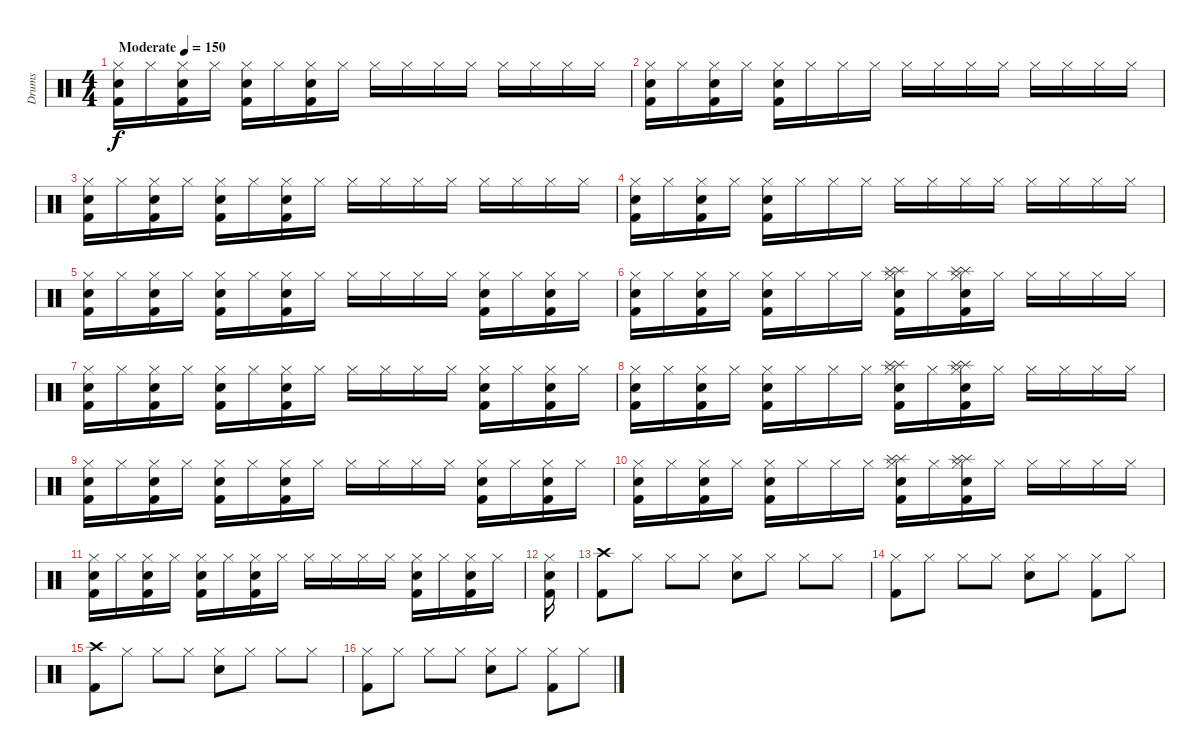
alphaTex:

\track ("Drums" "Drums") {instrument percussion}
\staff {score}
\articulation defaults
\ts (4 4)
\tempo (150 "Moderate")
\clef neutral
\ks c
("Hi-Hat (closed)" "Electric Snare (hit)" "Kick (hit) 2").16{dy f} "Hi-Hat (closed)".16 ("Hi-Hat (closed)" "Electric Snare (hit)" "Kick (hit) 2").16 "Hi-Hat (closed)".16 ("Hi-Hat (closed)" "Electric Snare (hit)" "Kick (hit) 2").16 "Hi-Hat (closed)".16 ("Hi-Hat (closed)" "Electric Snare (hit)" "Kick (hit) 2").16 "Hi-Hat (closed)".16 "Hi-Hat (closed)".16 "Hi-Hat (closed)".16 "Hi-Hat (closed)".16 "Hi-Hat (closed)".16 "Hi-Hat (closed)".16 "Hi-Hat (closed)".16 "Hi-Hat (closed)".16 "Hi-Hat (closed)".16 |
("Hi-Hat (closed)" "Electric Snare (hit)" "Kick (hit) 2").16 "Hi-Hat (closed)".16 ("Hi-Hat (closed)" "Electric Snare (hit)" "Kick (hit) 2").16 "Hi-Hat (closed)".16 ("Hi-Hat (closed)" "Electric Snare (hit)" "Kick (hit) 2").16 "Hi-Hat (closed)".16 "Hi-Hat (closed)".16 "Hi-Hat (closed)".16 "Hi-Hat (closed)".16 "Hi-Hat (closed)".16 "Hi-Hat (closed)".16 "Hi-Hat (closed)".16 "Hi-Hat (closed)".16 "Hi-Hat (closed)".16 "Hi-Hat (closed)".16 "Hi-Hat (closed)".16 |
("Hi-Hat (closed)" "Electric Snare (hit)" "Kick (hit) 2").16 "Hi-Hat (closed)".16 ("Hi-Hat (closed)" "Electric Snare (hit)" "Kick (hit) 2").16 "Hi-Hat (closed)".16 ("Hi-Hat (closed)" "Electric Snare (hit)" "Kick (hit) 2").16 "Hi-Hat (closed)".16 ("Hi-Hat (closed)" "Electric Snare (hit)" "Kick (hit) 2").16 "Hi-Hat (closed)".16 "Hi-Hat (closed)".16 "Hi-Hat (closed)".16 "Hi-Hat (closed)".16 "Hi-Hat (closed)".16 "Hi-Hat (closed)".16 "Hi-Hat (closed)".16 "Hi-Hat (closed)".16 "Hi-Hat (closed)".16 |
("Hi-Hat (closed)" "Electric Snare (hit)" "Kick (hit) 2").16 "Hi-Hat (closed)".16 ("Hi-Hat (closed)" "Electric Snare (hit)" "Kick (hit) 2").16 "Hi-Hat (closed)".16 ("Hi-Hat (closed)" "Electric Snare (hit)" "Kick (hit) 2").16 "Hi-Hat (closed)".16 "Hi-Hat (closed)".16 "Hi-Hat (closed)".16 "Hi-Hat (closed)".16 "Hi-Hat (closed)".16 "Hi-Hat (closed)".16 "Hi-Hat (closed)".16 "Hi-Hat (closed)".16 "Hi-Hat (closed)".16 "Hi-Hat (closed)".16 "Hi-Hat (closed)".16 |
("Hi-Hat (closed)" "Electric Snare (hit)" "Kick (hit) 2").16 "Hi-Hat (closed)".16 ("Hi-Hat (closed)" "Electric Snare (hit)" "Kick (hit) 2").16 "Hi-Hat (closed)".16 ("Hi-Hat (closed)" "Electric Snare (hit)" "Kick (hit) 2").16 "Hi-Hat (closed)".16 ("Hi-Hat (closed)" "Electric Snare (hit)" "Kick (hit) 2").16 "Hi-Hat (closed)".16 "Hi-Hat (closed)".16 "Hi-Hat (closed)".16 "Hi-Hat (closed)".16 "Hi-Hat (closed)".16 ("Hi-Hat (closed)" "Electric Snare (hit)" "Kick (hit) 2").16 "Hi-Hat (closed)".16 ("Hi-Hat (closed)" "Electric Snare (hit)" "Kick (hit) 2").16 "Hi-Hat (closed)".16 |
("Hi-Hat (closed)" "Electric Snare (hit)" "Kick (hit) 2").16 "Hi-Hat (closed)".16 ("Hi-Hat (closed)" "Electric Snare (hit)" "Kick (hit) 2").16 "Hi-Hat (closed)".16 ("Hi-Hat (closed)" "Electric Snare (hit)" "Kick (hit) 2").16 "Hi-Hat (closed)".16 "Hi-Hat (closed)".16 "Hi-Hat (closed)".16 ("Hi-Hat (closed)" "Splash (hit)" "Splash (hit)" "Electric Snare (hit)" "Kick (hit) 2").16 "Hi-Hat (closed)".16 ("Hi-Hat (closed)" "Splash (hit)" "Splash (hit)" "Electric Snare (hit)" "Kick (hit) 2").16 "Hi-Hat (closed)".16 "Hi-Hat (closed)".16 "Hi-Hat (closed)".16 "Hi-Hat (closed)".16 "Hi-Hat (closed)".16 |
("Hi-Hat (closed)" "Electric Snare (hit)" "Kick (hit) 2").16 "Hi-Hat (closed)".16 ("Hi-Hat (closed)" "Electric Snare (hit)" "Kick (hit) 2").16 "Hi-Hat (closed)".16 ("Hi-Hat (closed)" "Electric Snare (hit)" "Kick (hit) 2").16 "Hi-Hat (closed)".16 ("Hi-Hat (closed)" "Electric Snare (hit)" "Kick (hit) 2").16 "Hi-Hat (closed)".16 "Hi-Hat (closed)".16 "Hi-Hat (closed)".16 "Hi-Hat (closed)".16 "Hi-Hat (closed)".16 ("Hi-Hat (closed)" "Electric Snare (hit)" "Kick (hit) 2").16 "Hi-Hat (closed)".16 ("Hi-Hat (closed)" "Electric Snare (hit)" "Kick (hit) 2").16 "Hi-Hat (closed)".16 |
("Hi-Hat (closed)" "Electric Snare (hit)" "Kick (hit) 2").16 "Hi-Hat (closed)".16 ("Hi-Hat (closed)" "Electric Snare (hit)" "Kick (hit) 2").16 "Hi-Hat (closed)".16 ("Hi-Hat (closed)" "Electric Snare (hit)" "Kick (hit) 2").16 "Hi-Hat (closed)".16 "Hi-Hat (closed)".16 "Hi-Hat (closed)".16 ("Hi-Hat (closed)" "Splash (hit)" "Splash (hit)" "Electric Snare (hit)" "Kick (hit) 2").16 "Hi-Hat (closed)".16 ("Hi-Hat (closed)" "Splash (hit)" "Splash (hit)" "Electric Snare (hit)" "Kick (hit) 2").16 "Hi-Hat (closed)".16 "Hi-Hat (closed)".16 "Hi-Hat (closed)".16 "Hi-Hat (closed)".16 "Hi-Hat (closed)".16 |
("Hi-Hat (closed)" "Electric Snare (hit)" "Kick (hit) 2").16 "Hi-Hat (closed)".16 ("Hi-Hat (closed)" "Electric Snare (hit)" "Kick (hit) 2").16 "Hi-Hat (closed)".16 ("Hi-Hat (closed)" "Electric Snare (hit)" "Kick (hit) 2").16 "Hi-Hat (closed)".16 ("Hi-Hat (closed)" "Electric Snare (hit)" "Kick (hit) 2").16 "Hi-Hat (closed)".16 "Hi-Hat (closed)".16 "Hi-Hat (closed)".16 "Hi-Hat (closed)".16 "Hi-Hat (closed)".16 ("Hi-Hat (closed)" "Electric Snare (hit)" "Kick (hit) 2").16 "Hi-Hat (closed)".16 ("Hi-Hat (closed)" "Electric Snare (hit)" "Kick (hit) 2").16 "Hi-Hat (closed)".16 |
("Hi-Hat (closed)" "Electric Snare (hit)" "Kick (hit) 2").16 "Hi-Hat (closed)".16 ("Hi-Hat (closed)" "Electric Snare (hit)" "Kick (hit) 2").16 "Hi-Hat (closed)".16 ("Hi-Hat (closed)" "Electric Snare (hit)" "Kick (hit) 2").16 "Hi-Hat (closed)".16 "Hi-Hat (closed)".16 "Hi-Hat (closed)".16 ("Hi-Hat (closed)" "Splash (hit)" "Splash (hit)" "Electric Snare (hit)" "Kick (hit) 2").16 "Hi-Hat (closed)".16 ("Hi-Hat (closed)" "Splash (hit)" "Splash (hit)" "Electric Snare (hit)" "Kick (hit) 2").16 "Hi-Hat (closed)".16 "Hi-Hat (closed)".16 "Hi-Hat (closed)".16 "Hi-Hat (closed)".16 "Hi-Hat (closed)".16 |
("Hi-Hat (closed)" "Electric Snare (hit)" "Kick (hit) 2").16 "Hi-Hat (closed)".16 ("Hi-Hat (closed)" "Electric Snare (hit)" "Kick (hit) 2").16 "Hi-Hat (closed)".16 ("Hi-Hat (closed)" "Electric Snare (hit)" "Kick (hit) 2").16 "Hi-Hat (closed)".16 ("Hi-Hat (closed)" "Electric Snare (hit)" "Kick (hit) 2").16 "Hi-Hat (closed)".16 "Hi-Hat (closed)".16 "Hi-Hat (closed)".16 "Hi-Hat (closed)".16 "Hi-Hat (closed)".16 ("Hi-Hat (closed)" "Electric Snare (hit)" "Kick (hit) 2").16 "Hi-Hat (closed)".16 ("Hi-Hat (closed)" "Electric Snare (hit)" "Kick (hit) 2").16 "Hi-Hat (closed)".16 |
("Hi-Hat (closed)" "Electric Snare (hit)" "Kick (hit) 2").16 |
("Crash high (hit)" "Kick (hit) 2").8 "Hi-Hat (closed)".8 "Hi-Hat (closed)".8 "Hi-Hat (closed)".8 ("Hi-Hat (closed)" "Electric Snare (hit)").8 "Hi-Hat (closed)".8 "Hi-Hat (closed)".8 "Hi-Hat (closed)".8 |
("Hi-Hat (closed)" "Kick (hit) 2").8 "Hi-Hat (closed)".8 "Hi-Hat (closed)".8 "Hi-Hat (closed)".8 ("Hi-Hat (closed)" "Electric Snare (hit)").8 "Hi-Hat (closed)".8 ("Hi-Hat (closed)" "Kick (hit) 2").8 "Hi-Hat (closed)".8 |
("Crash high (hit)" "Kick (hit) 2").8 "Hi-Hat (closed)".8 "Hi-Hat (closed)".8 "Hi-Hat (closed)".8 ("Hi-Hat (closed)" "Electric Snare (hit)").8 "Hi-Hat (closed)".8 "Hi-Hat (closed)".8 "Hi-Hat (closed)".8 |
("Hi-Hat (closed)" "Kick (hit) 2").8 "Hi-Hat (closed)".8 "Hi-Hat (closed)".8 "Hi-Hat (closed)".8 ("Hi-Hat (closed)" "Electric Snare (hit)").8 "Hi-Hat (closed)".8 ("Hi-Hat (closed)" "Kick (hit) 2").8 "Hi-Hat (closed)".8
